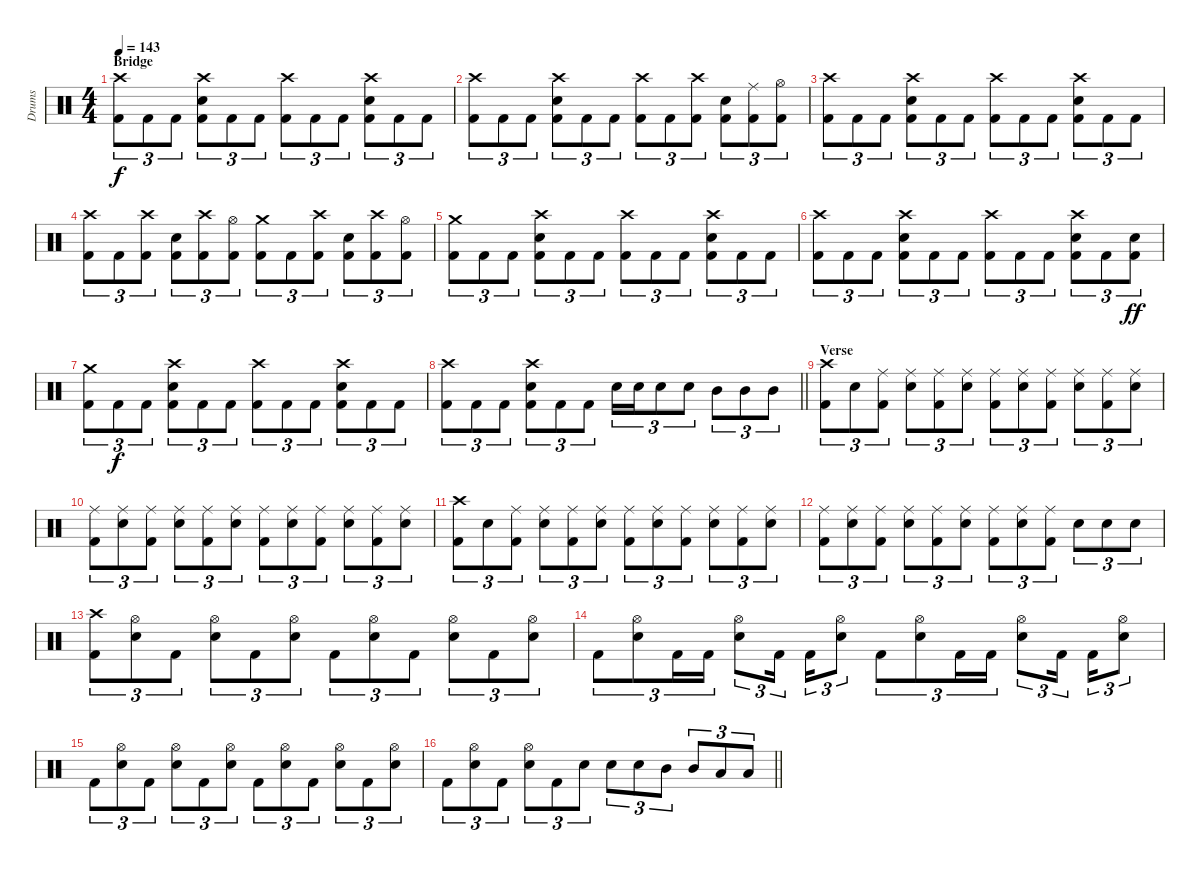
\track ("Drums" "Drums") {instrument percussion}
\staff {score}
\articulation defaults
\ts (4 4)
\section ("" "Bridge")
\tempo 143
\clef neutral
\ks c
("Crash high (hit)" "Kick (hit) 2").8{tu (3 2) dy f} "Kick (hit) 2".8{tu (3 2)} "Kick (hit) 2".8{tu (3 2)} ("Crash high (hit)" "Snare (hit) 2" "Kick (hit) 2").8{tu (3 2)} "Kick (hit) 2".8{tu (3 2)} "Kick (hit) 2".8{tu (3 2)} ("Crash high (hit)" "Kick (hit) 2").8{tu (3 2)} "Kick (hit) 2".8{tu (3 2)} "Kick (hit) 2".8{tu (3 2)} ("Crash high (hit)" "Snare (hit) 2" "Kick (hit) 2").8{tu (3 2)} "Kick (hit) 2".8{tu (3 2)} "Kick (hit) 2".8{tu (3 2)} |
("Crash high (hit)" "Kick (hit) 2").8{tu (3 2)} "Kick (hit) 2".8{tu (3 2)} "Kick (hit) 2".8{tu (3 2)} ("Crash high (hit)" "Snare (hit) 2" "Kick (hit) 2").8{tu (3 2)} "Kick (hit) 2".8{tu (3 2)} "Kick (hit) 2".8{tu (3 2)} ("Crash high (hit)" "Kick (hit) 2").8{tu (3 2)} "Kick (hit) 2".8{tu (3 2)} ("Crash high (hit)" "Kick (hit) 2").8{tu (3 2)} ("Snare (hit) 2" "Kick (hit) 2").8{tu (3 2)} ("Ride (middle)" "Kick (hit) 2").8{tu (3 2)} ("Hi-Hat (open)" "Kick (hit) 2").8{tu (3 2)} |
("Crash high (hit)" "Kick (hit) 2").8{tu (3 2)} "Kick (hit) 2".8{tu (3 2)} "Kick (hit) 2".8{tu (3 2)} ("Crash high (hit)" "Snare (hit) 2" "Kick (hit) 2").8{tu (3 2)} "Kick (hit) 2".8{tu (3 2)} "Kick (hit) 2".8{tu (3 2)} ("Crash high (hit)" "Kick (hit) 2").8{tu (3 2)} "Kick (hit) 2".8{tu (3 2)} "Kick (hit) 2".8{tu (3 2)} ("Crash high (hit)" "Snare (hit) 2" "Kick (hit) 2").8{tu (3 2)} "Kick (hit) 2".8{tu (3 2)} "Kick (hit) 2".8{tu (3 2)} |
("Crash high (hit)" "Kick (hit) 2").8{tu (3 2)} "Kick (hit) 2".8{tu (3 2)} ("Crash high (hit)" "Kick (hit) 2").8{tu (3 2)} ("Snare (hit) 2" "Kick (hit) 2").8{tu (3 2)} ("Crash high (hit)" "Kick (hit) 2").8{tu (3 2)} ("Hi-Hat (open)" "Kick (hit) 2").8{tu (3 2)} ("Crash medium (hit)" "Kick (hit) 2").8{tu (3 2)} "Kick (hit) 2".8{tu (3 2)} ("Crash high (hit)" "Kick (hit) 2").8{tu (3 2)} ("Snare (hit) 2" "Kick (hit) 2").8{tu (3 2)} ("Crash high (hit)" "Kick (hit) 2").8{tu (3 2)} ("Hi-Hat (open)" "Kick (hit) 2").8{tu (3 2)} |
("Crash medium (hit)" "Kick (hit) 2").8{tu (3 2)} "Kick (hit) 2".8{tu (3 2)} "Kick (hit) 2".8{tu (3 2)} ("Crash high (hit)" "Snare (hit) 2" "Kick (hit) 2").8{tu (3 2)} "Kick (hit) 2".8{tu (3 2)} "Kick (hit) 2".8{tu (3 2)} ("Crash high (hit)" "Kick (hit) 2").8{tu (3 2)} "Kick (hit) 2".8{tu (3 2)} "Kick (hit) 2".8{tu (3 2)} ("Crash high (hit)" "Snare (hit) 2" "Kick (hit) 2").8{tu (3 2)} "Kick (hit) 2".8{tu (3 2)} "Kick (hit) 2".8{tu (3 2)} |
("Crash high (hit)" "Kick (hit) 2").8{tu (3 2)} "Kick (hit) 2".8{tu (3 2)} "Kick (hit) 2".8{tu (3 2)} ("Crash high (hit)" "Snare (hit) 2" "Kick (hit) 2").8{tu (3 2)} "Kick (hit) 2".8{tu (3 2)} "Kick (hit) 2".8{tu (3 2)} ("Crash high (hit)" "Kick (hit) 2").8{tu (3 2)} "Kick (hit) 2".8{tu (3 2)} "Kick (hit) 2".8{tu (3 2)} ("Crash high (hit)" "Snare (hit) 2" "Kick (hit) 2").8{tu (3 2)} "Kick (hit) 2".8{tu (3 2)} ("Snare (hit) 2" "Kick (hit) 2").8{tu (3 2) dy ff} |
("Crash medium (hit)" "Kick (hit) 2").8{tu (3 2)} "Kick (hit) 2".8{tu (3 2) dy f} "Kick (hit) 2".8{tu (3 2)} ("Crash high (hit)" "Snare (hit) 2" "Kick (hit) 2").8{tu (3 2)} "Kick (hit) 2".8{tu (3 2)} "Kick (hit) 2".8{tu (3 2)} ("Crash high (hit)" "Kick (hit) 2").8{tu (3 2)} "Kick (hit) 2".8{tu (3 2)} "Kick (hit) 2".8{tu (3 2)} ("Crash high (hit)" "Snare (hit) 2" "Kick (hit) 2").8{tu (3 2)} "Kick (hit) 2".8{tu (3 2)} "Kick (hit) 2".8{tu (3 2)} |
\barLineRight lightlight
("Crash high (hit)" "Kick (hit) 2").8{tu (3 2)} "Kick (hit) 2".8{tu (3 2)} "Kick (hit) 2".8{tu (3 2)} ("Crash high (hit)" "Snare (hit) 2" "Kick (hit) 2").8{tu (3 2)} "Kick (hit) 2".8{tu (3 2)} "Kick (hit) 2".8{tu (3 2)} "Snare (hit) 2".16{tu (3 2)} "Snare (hit) 2".16{tu (3 2)} "Snare (hit) 2".8{tu (3 2)} "Snare (hit) 2".8{tu (3 2)} "Mid Tom (hit)".8{tu (3 2)} "Mid Tom (hit)".8{tu (3 2)} "Mid Tom (hit)".8{tu (3 2)} |
\section ("" "Verse")
("Crash high (hit)" "Kick (hit) 2").8{tu (3 2)} "Snare (hit) 2".8{tu (3 2)} ("Ride (middle)" "Kick (hit) 2").8{tu (3 2)} ("Ride (middle)" "Snare (hit) 2").8{tu (3 2)} ("Ride (middle)" "Kick (hit) 2").8{tu (3 2)} ("Ride (middle)" "Snare (hit) 2").8{tu (3 2)} ("Ride (middle)" "Kick (hit) 2").8{tu (3 2)} ("Ride (middle)" "Snare (hit) 2").8{tu (3 2)} ("Ride (middle)" "Kick (hit) 2").8{tu (3 2)} ("Ride (middle)" "Snare (hit) 2").8{tu (3 2)} ("Ride (middle)" "Kick (hit) 2").8{tu (3 2)} ("Ride (middle)" "Snare (hit) 2").8{tu (3 2)} |
("Ride (middle)" "Kick (hit) 2").8{tu (3 2)} ("Ride (middle)" "Snare (hit) 2").8{tu (3 2)} ("Ride (middle)" "Kick (hit) 2").8{tu (3 2)} ("Ride (middle)" "Snare (hit) 2").8{tu (3 2)} ("Ride (middle)" "Kick (hit) 2").8{tu (3 2)} ("Ride (middle)" "Snare (hit) 2").8{tu (3 2)} ("Ride (middle)" "Kick (hit) 2").8{tu (3 2)} ("Ride (middle)" "Snare (hit) 2").8{tu (3 2)} ("Ride (middle)" "Kick (hit) 2").8{tu (3 2)} ("Ride (middle)" "Snare (hit) 2").8{tu (3 2)} ("Ride (middle)" "Kick (hit) 2").8{tu (3 2)} ("Ride (middle)" "Snare (hit) 2").8{tu (3 2)} |
("Crash high (hit)" "Kick (hit) 2").8{tu (3 2)} "Snare (hit) 2".8{tu (3 2)} ("Ride (middle)" "Kick (hit) 2").8{tu (3 2)} ("Ride (middle)" "Snare (hit) 2").8{tu (3 2)} ("Ride (middle)" "Kick (hit) 2").8{tu (3 2)} ("Ride (middle)" "Snare (hit) 2").8{tu (3 2)} ("Ride (middle)" "Kick (hit) 2").8{tu (3 2)} ("Ride (middle)" "Snare (hit) 2").8{tu (3 2)} ("Ride (middle)" "Kick (hit) 2").8{tu (3 2)} ("Ride (middle)" "Snare (hit) 2").8{tu (3 2)} ("Ride (middle)" "Kick (hit) 2").8{tu (3 2)} ("Ride (middle)" "Snare (hit) 2").8{tu (3 2)} |
("Ride (middle)" "Kick (hit) 2").8{tu (3 2)} ("Ride (middle)" "Snare (hit) 2").8{tu (3 2)} ("Ride (middle)" "Kick (hit) 2").8{tu (3 2)} ("Ride (middle)" "Snare (hit) 2").8{tu (3 2)} ("Ride (middle)" "Kick (hit) 2").8{tu (3 2)} ("Ride (middle)" "Snare (hit) 2").8{tu (3 2)} ("Ride (middle)" "Kick (hit) 2").8{tu (3 2)} ("Ride (middle)" "Snare (hit) 2").8{tu (3 2)} ("Ride (middle)" "Kick (hit) 2").8{tu (3 2)} "Snare (hit) 2".8{tu (3 2)} "Snare (hit) 2".8{tu (3 2)} "Snare (hit) 2".8{tu (3 2)} |
("Crash high (hit)" "Kick (hit) 2").8{tu (3 2)} ("Hi-Hat (open)" "Snare (hit) 2").8{tu (3 2)} "Kick (hit) 2".8{tu (3 2)} ("Hi-Hat (open)" "Snare (hit) 2").8{tu (3 2)} "Kick (hit) 2".8{tu (3 2)} ("Hi-Hat (open)" "Snare (hit) 2").8{tu (3 2)} "Kick (hit) 2".8{tu (3 2)} ("Hi-Hat (open)" "Snare (hit) 2").8{tu (3 2)} "Kick (hit) 2".8{tu (3 2)} ("Hi-Hat (open)" "Snare (hit) 2").8{tu (3 2)} "Kick (hit) 2".8{tu (3 2)} ("Hi-Hat (open)" "Snare (hit) 2").8{tu (3 2)} |
"Kick (hit) 2".8{tu (3 2)} ("Hi-Hat (open)" "Snare (hit) 2").8{tu (3 2)} "Kick (hit) 2".16{tu (3 2)} "Kick (hit) 2".16{tu (3 2)} ("Hi-Hat (open)" "Snare (hit) 2").8{tu (3 2)} "Kick (hit) 2".16{tu (3 2) beam splitsecondary} "Kick (hit) 2".16{tu (3 2)} ("Hi-Hat (open)" "Snare (hit) 2").8{tu (3 2)} "Kick (hit) 2".8{tu (3 2)} ("Hi-Hat (open)" "Snare (hit) 2").8{tu (3 2)} "Kick (hit) 2".16{tu (3 2)} "Kick (hit) 2".16{tu (3 2)} ("Hi-Hat (open)" "Snare (hit) 2").8{tu (3 2)} "Kick (hit) 2".16{tu (3 2) beam splitsecondary} "Kick (hit) 2".16{tu (3 2)} ("Hi-Hat (open)" "Snare (hit) 2").8{tu (3 2)} |
"Kick (hit) 2".8{tu (3 2)} ("Hi-Hat (open)" "Snare (hit) 2").8{tu (3 2)} "Kick (hit) 2".8{tu (3 2)} ("Hi-Hat (open)" "Snare (hit) 2").8{tu (3 2)} "Kick (hit) 2".8{tu (3 2)} ("Hi-Hat (open)" "Snare (hit) 2").8{tu (3 2)} "Kick (hit) 2".8{tu (3 2)} ("Hi-Hat (open)" "Snare (hit) 2").8{tu (3 2)} "Kick (hit) 2".8{tu (3 2)} ("Hi-Hat (open)" "Snare (hit) 2").8{tu (3 2)} "Kick (hit) 2".8{tu (3 2)} ("Hi-Hat (open)" "Snare (hit) 2").8{tu (3 2)} |
\barLineRight lightlight "Kick (hit) 2".8{tu (3 2)}
("Hi-Hat (open)" "Snare (hit) 2").8{tu (3 2)} "Kick (hit) 2".8{tu (3 2)} ("Hi-Hat (open)" "Snare (hit) 2").8{tu (3 2)} "Kick (hit) 2".8{tu (3 2)} "Snare (hit) 2".8{tu (3 2)} "Snare (hit) 2".8{tu (3 2)} "Snare (hit) 2".8{tu (3 2)} "Mid Tom (hit)".8{tu (3 2)} "Mid Tom (hit)".8{tu (3 2)} "Low Tom (hit)".8{tu (3 2)} "Low Tom (hit)".8{tu (3 2)}
